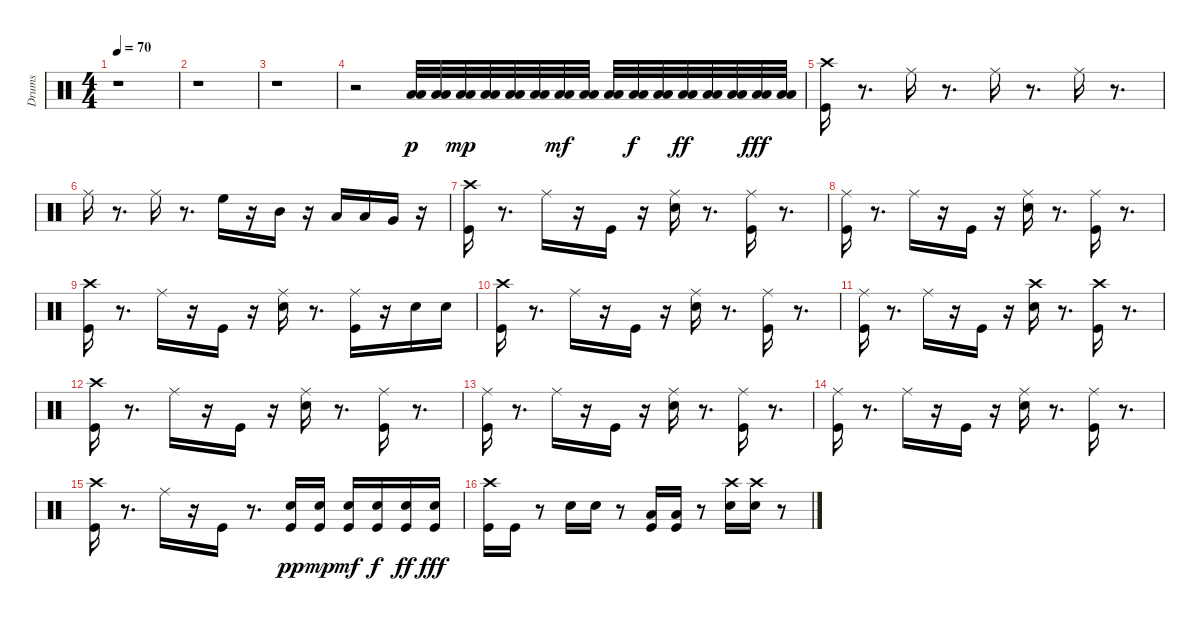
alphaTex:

\track ("Drums" "Drums") {instrument percussion}
\staff {score}
\articulation defaults
\ts (4 4)
\tempo 70
\clef neutral
\ks c
r.1{dy fff} |
r.1 |
r.1 |
r.2 ("Low Floor Tom (hit)" "Low Floor Tom (hit)").32{dy p} ("Low Floor Tom (hit)" "Low Floor Tom (hit)").32 ("Low Floor Tom (hit)" "Low Floor Tom (hit)").32{dy mp} ("Low Floor Tom (hit)" "Low Floor Tom (hit)").32 ("Low Floor Tom (hit)" "Low Floor Tom (hit)").32 ("Low Floor Tom (hit)" "Low Floor Tom (hit)").32 ("Low Floor Tom (hit)" "Low Floor Tom (hit)").32{dy mf} ("Low Floor Tom (hit)" "Low Floor Tom (hit)").32 ("Low Floor Tom (hit)" "Low Floor Tom (hit)").32 ("Low Floor Tom (hit)" "Low Floor Tom (hit)").32{dy f} ("Low Floor Tom (hit)" "Low Floor Tom (hit)").32 ("Low Floor Tom (hit)" "Low Floor Tom (hit)").32{dy ff} ("Low Floor Tom (hit)" "Low Floor Tom (hit)").32 ("Low Floor Tom (hit)" "Low Floor Tom (hit)").32 ("Low Floor Tom (hit)" "Low Floor Tom (hit)").32{dy fff} ("Low Floor Tom (hit)" "Low Floor Tom (hit)").32 |
("Crash high (hit)" "Kick (hit)").16 r.8{d} "Ride (middle)".16 r.8{d} "Ride (middle)".16 r.8{d} "Ride (middle)".16 r.8{d} |
"Ride (middle)".16 r.8{d} "Ride (middle)".16 r.8{d} "High Floor Tom (hit)".16 r.16 "Mid Tom (hit)".16 r.16 "Low Tom (hit)".16 "Low Tom (hit)".16 "Very Low Tom (hit)".16 r.16 |
("Kick (hit)" "Crash high (hit)").16 r.8{d} "Ride (middle)".16 r.16 "Kick (hit)".16 r.16 ("Snare (hit) 2" "Ride (middle)").16 r.8{d} ("Kick (hit)" "Ride (middle)").16 r.8{d} |
("Ride (middle)" "Kick (hit)").16 r.8{d} "Ride (middle)".16 r.16 "Kick (hit)".16 r.16 ("Ride (middle)" "Snare (hit) 2").16 r.8{d} ("Ride (middle)" "Kick (hit)").16 r.8{d} |
("Crash high (hit)" "Kick (hit)").16 r.8{d} "Ride (middle)".16 r.16 "Kick (hit)".16 r.16 ("Snare (hit) 2" "Ride (middle)").16 r.8{d} ("Kick (hit)" "Ride (middle)").16 r.16 "Snare (hit) 2".16 "Snare (hit) 2".16 |
("Crash high (hit)" "Kick (hit)").16 r.8{d} "Ride (middle)".16 r.16 "Kick (hit)".16 r.16 ("Ride (middle)" "Snare (hit) 2").16 r.8{d} ("Ride (middle)" "Kick (hit)").16 r.8{d} |
("Kick (hit)" "Ride (middle)").16 r.8{d} "Ride (middle)".16 r.16 "Kick (hit)".16 r.16 ("Crash high (hit)" "Snare (hit) 2").16 r.8{d} ("Crash high (hit)" "Kick (hit)").16 r.8{d} |
("Kick (hit)" "Crash high (hit)").16 r.8{d} "Ride (middle)".16 r.16 "Kick (hit)".16 r.16 ("Ride (middle)" "Snare (hit) 2").16 r.8{d} ("Ride (middle)" "Kick (hit)").16 r.8{d} |
("Ride (middle)" "Kick (hit)").16 r.8{d} "Ride (middle)".16 r.16 "Kick (hit)".16 r.16 ("Snare (hit) 2" "Ride (middle)").16 r.8{d} ("Kick (hit)" "Ride (middle)").16 r.8{d} |
("Kick (hit)" "Ride (middle)").16 r.8{d} "Ride (middle)".16 r.16 "Kick (hit)".16 r.16 ("Ride (middle)" "Snare (hit) 2").16 r.8{d} ("Ride (middle)" "Kick (hit)").16 r.8{d} |
("Crash high (hit)" "Kick (hit)").16 r.8{d} "Ride (middle)".16 r.16 "Kick (hit)".16 r.8{d} ("Snare (hit) 2" "Kick (hit)").16{dy pp} ("Snare (hit) 2" "Kick (hit)").16{dy mp} ("Snare (hit) 2" "Kick (hit)").16{dy mf} ("Kick (hit)" "Snare (hit) 2").16{dy f} ("Kick (hit)" "Snare (hit) 2").16{dy ff} ("Snare (hit) 2" "Kick (hit)").16{dy fff} |
("Crash high (hit)" "Kick (hit)").16 "Kick (hit)".16 r.8 "Snare (hit) 2".16 "Snare (hit) 2".16 r.8 ("Low Floor Tom (hit)" "Kick (hit)").16 ("Low Floor Tom (hit)" "Kick (hit)").16 r.8 ("Crash high (hit)" "Snare (hit) 2").16 ("Crash high (hit)" "Snare (hit) 2").16 r.8
